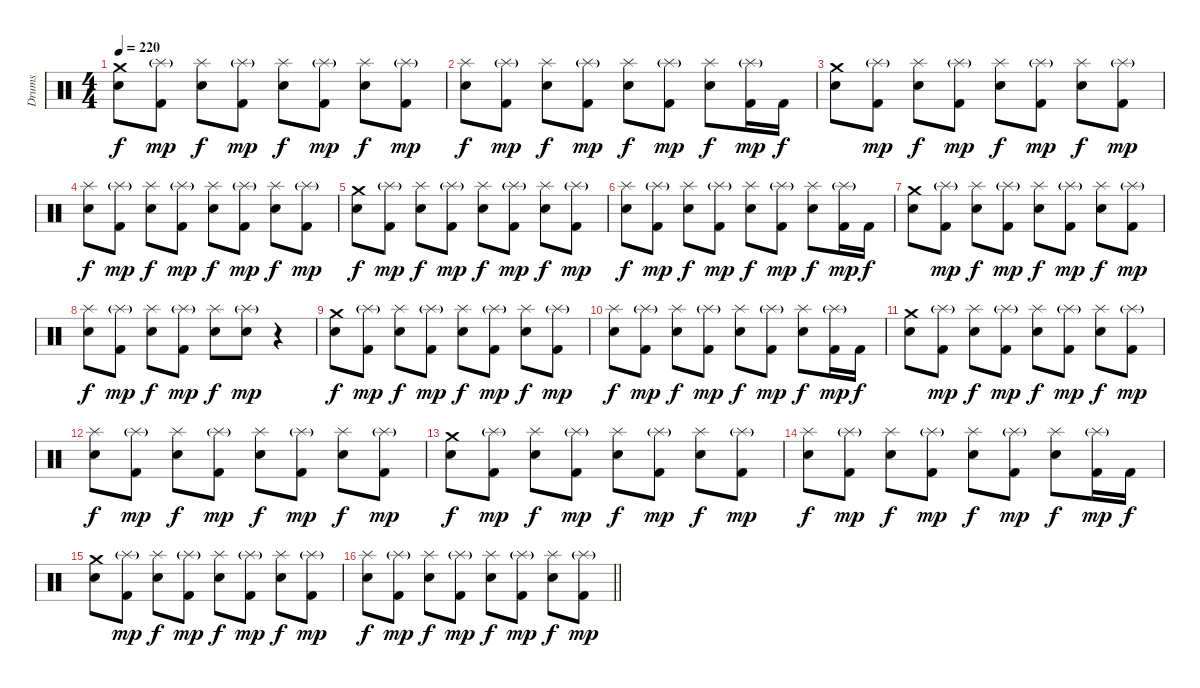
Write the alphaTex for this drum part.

\track ("Drums" "Drums") {instrument percussion}
\staff {score}
\articulation defaults
\ts (4 4)
\tempo 220
\clef neutral
\ks c
("Crash medium (hit)" "Electric Snare (hit)").8{dy f} ("Splash (hit)"{g} "Kick (hit) 2").8{dy mp} ("Splash (hit)" "Electric Snare (hit)").8{dy f} ("Splash (hit)"{g} "Kick (hit) 2").8{dy mp} ("Splash (hit)" "Electric Snare (hit)").8{dy f} ("Splash (hit)"{g} "Kick (hit) 2").8{dy mp} ("Splash (hit)" "Electric Snare (hit)").8{dy f} ("Splash (hit)"{g} "Kick (hit) 2").8{dy mp} |
("Splash (hit)" "Electric Snare (hit)").8{dy f} ("Splash (hit)"{g} "Kick (hit) 2").8{dy mp} ("Splash (hit)" "Electric Snare (hit)").8{dy f} ("Splash (hit)"{g} "Kick (hit) 2").8{dy mp} ("Splash (hit)" "Electric Snare (hit)").8{dy f} ("Splash (hit)"{g} "Kick (hit) 2").8{dy mp} ("Splash (hit)" "Electric Snare (hit)").8{dy f} ("Splash (hit)"{g} "Kick (hit) 2").16{dy mp} "Kick (hit) 2".16{dy f} |
("Crash medium (hit)" "Electric Snare (hit)").8 ("Splash (hit)"{g} "Kick (hit) 2").8{dy mp} ("Splash (hit)" "Electric Snare (hit)").8{dy f} ("Splash (hit)"{g} "Kick (hit) 2").8{dy mp} ("Splash (hit)" "Electric Snare (hit)").8{dy f} ("Splash (hit)"{g} "Kick (hit) 2").8{dy mp} ("Splash (hit)" "Electric Snare (hit)").8{dy f} ("Splash (hit)"{g} "Kick (hit) 2").8{dy mp} |
("Splash (hit)" "Electric Snare (hit)").8{dy f} ("Splash (hit)"{g} "Kick (hit) 2").8{dy mp} ("Splash (hit)" "Electric Snare (hit)").8{dy f} ("Splash (hit)"{g} "Kick (hit) 2").8{dy mp} ("Splash (hit)" "Electric Snare (hit)").8{dy f} ("Splash (hit)"{g} "Kick (hit) 2").8{dy mp} ("Splash (hit)" "Electric Snare (hit)").8{dy f} ("Splash (hit)"{g} "Kick (hit) 2").8{dy mp} |
("Crash medium (hit)" "Electric Snare (hit)").8{dy f} ("Splash (hit)"{g} "Kick (hit) 2").8{dy mp} ("Splash (hit)" "Electric Snare (hit)").8{dy f} ("Splash (hit)"{g} "Kick (hit) 2").8{dy mp} ("Splash (hit)" "Electric Snare (hit)").8{dy f} ("Splash (hit)"{g} "Kick (hit) 2").8{dy mp} ("Splash (hit)" "Electric Snare (hit)").8{dy f} ("Splash (hit)"{g} "Kick (hit) 2").8{dy mp} |
("Splash (hit)" "Electric Snare (hit)").8{dy f} ("Splash (hit)"{g} "Kick (hit) 2").8{dy mp} ("Splash (hit)" "Electric Snare (hit)").8{dy f} ("Splash (hit)"{g} "Kick (hit) 2").8{dy mp} ("Splash (hit)" "Electric Snare (hit)").8{dy f} ("Splash (hit)"{g} "Kick (hit) 2").8{dy mp} ("Splash (hit)" "Electric Snare (hit)").8{dy f} ("Splash (hit)"{g} "Kick (hit) 2").16{dy mp} "Kick (hit) 2".16{dy f} |
("Crash medium (hit)" "Electric Snare (hit)").8 ("Splash (hit)"{g} "Kick (hit) 2").8{dy mp} ("Splash (hit)" "Electric Snare (hit)").8{dy f} ("Splash (hit)"{g} "Kick (hit) 2").8{dy mp} ("Splash (hit)" "Electric Snare (hit)").8{dy f} ("Splash (hit)"{g} "Kick (hit) 2").8{dy mp} ("Splash (hit)" "Electric Snare (hit)").8{dy f} ("Splash (hit)"{g} "Kick (hit) 2").8{dy mp} |
("Splash (hit)" "Electric Snare (hit)").8{dy f} ("Splash (hit)"{g} "Kick (hit) 2").8{dy mp} ("Splash (hit)" "Electric Snare (hit)").8{dy f} ("Splash (hit)"{g} "Kick (hit) 2").8{dy mp} ("Splash (hit)" "Electric Snare (hit)").8{dy f} ("Splash (hit)"{g} "Electric Snare (hit)").8{dy mp} r.4 |
("Crash medium (hit)" "Electric Snare (hit)").8{dy f} ("Splash (hit)"{g} "Kick (hit) 2").8{dy mp} ("Splash (hit)" "Electric Snare (hit)").8{dy f} ("Splash (hit)"{g} "Kick (hit) 2").8{dy mp} ("Splash (hit)" "Electric Snare (hit)").8{dy f} ("Splash (hit)"{g} "Kick (hit) 2").8{dy mp} ("Splash (hit)" "Electric Snare (hit)").8{dy f} ("Splash (hit)"{g} "Kick (hit) 2").8{dy mp} |
("Splash (hit)" "Electric Snare (hit)").8{dy f} ("Splash (hit)"{g} "Kick (hit) 2").8{dy mp} ("Splash (hit)" "Electric Snare (hit)").8{dy f} ("Splash (hit)"{g} "Kick (hit) 2").8{dy mp} ("Splash (hit)" "Electric Snare (hit)").8{dy f} ("Splash (hit)"{g} "Kick (hit) 2").8{dy mp} ("Splash (hit)" "Electric Snare (hit)").8{dy f} ("Splash (hit)"{g} "Kick (hit) 2").16{dy mp} "Kick (hit) 2".16{dy f} |
("Crash medium (hit)" "Electric Snare (hit)").8 ("Splash (hit)"{g} "Kick (hit) 2").8{dy mp} ("Splash (hit)" "Electric Snare (hit)").8{dy f} ("Splash (hit)"{g} "Kick (hit) 2").8{dy mp} ("Splash (hit)" "Electric Snare (hit)").8{dy f} ("Splash (hit)"{g} "Kick (hit) 2").8{dy mp} ("Splash (hit)" "Electric Snare (hit)").8{dy f} ("Splash (hit)"{g} "Kick (hit) 2").8{dy mp} |
("Splash (hit)" "Electric Snare (hit)").8{dy f} ("Splash (hit)"{g} "Kick (hit) 2").8{dy mp} ("Splash (hit)" "Electric Snare (hit)").8{dy f} ("Splash (hit)"{g} "Kick (hit) 2").8{dy mp} ("Splash (hit)" "Electric Snare (hit)").8{dy f} ("Splash (hit)"{g} "Kick (hit) 2").8{dy mp} ("Splash (hit)" "Electric Snare (hit)").8{dy f} ("Splash (hit)"{g} "Kick (hit) 2").8{dy mp} |
("Crash medium (hit)" "Electric Snare (hit)").8{dy f} ("Splash (hit)"{g} "Kick (hit) 2").8{dy mp} ("Splash (hit)" "Electric Snare (hit)").8{dy f} ("Splash (hit)"{g} "Kick (hit) 2").8{dy mp} ("Splash (hit)" "Electric Snare (hit)").8{dy f} ("Splash (hit)"{g} "Kick (hit) 2").8{dy mp} ("Splash (hit)" "Electric Snare (hit)").8{dy f} ("Splash (hit)"{g} "Kick (hit) 2").8{dy mp} |
("Splash (hit)" "Electric Snare (hit)").8{dy f} ("Splash (hit)"{g} "Kick (hit) 2").8{dy mp} ("Splash (hit)" "Electric Snare (hit)").8{dy f} ("Splash (hit)"{g} "Kick (hit) 2").8{dy mp} ("Splash (hit)" "Electric Snare (hit)").8{dy f} ("Splash (hit)"{g} "Kick (hit) 2").8{dy mp} ("Splash (hit)" "Electric Snare (hit)").8{dy f} ("Splash (hit)"{g} "Kick (hit) 2").16{dy mp} "Kick (hit) 2".16{dy f} |
("Crash medium (hit)" "Electric Snare (hit)").8 ("Splash (hit)"{g} "Kick (hit) 2").8{dy mp} ("Splash (hit)" "Electric Snare (hit)").8{dy f} ("Splash (hit)"{g} "Kick (hit) 2").8{dy mp} ("Splash (hit)" "Electric Snare (hit)").8{dy f} ("Splash (hit)"{g} "Kick (hit) 2").8{dy mp} ("Splash (hit)" "Electric Snare (hit)").8{dy f} ("Splash (hit)"{g} "Kick (hit) 2").8{dy mp} |
\barLineRight lightlight
("Splash (hit)" "Electric Snare (hit)").8{dy f} ("Splash (hit)"{g} "Kick (hit) 2").8{dy mp} ("Splash (hit)" "Electric Snare (hit)").8{dy f} ("Splash (hit)"{g} "Kick (hit) 2").8{dy mp} ("Splash (hit)" "Electric Snare (hit)").8{dy f} ("Splash (hit)"{g} "Kick (hit) 2").8{dy mp} ("Splash (hit)" "Electric Snare (hit)").8{dy f} ("Splash (hit)"{g} "Kick (hit) 2").8{dy mp}
